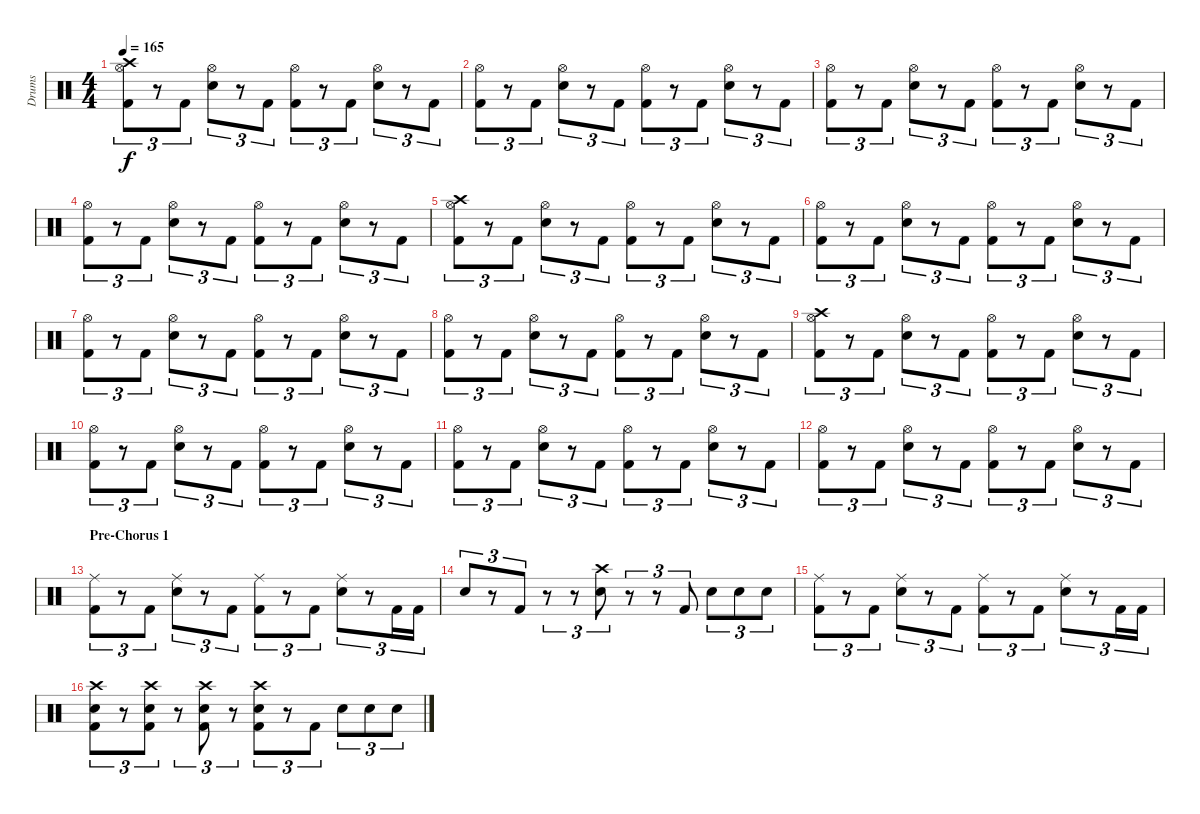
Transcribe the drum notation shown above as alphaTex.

\track ("Drums" "Drums") {instrument percussion}
\staff {score}
\articulation defaults
\ts (4 4)
\tempo 165
\clef neutral
\ks c
("Hi-Hat (open)" "Crash high (hit)" "Kick (hit) 2").8{tu (3 2) dy f} r.8{tu (3 2)} "Kick (hit) 2".8{tu (3 2)} ("Hi-Hat (open)" "Snare (hit) 2").8{tu (3 2)} r.8{tu (3 2)} "Kick (hit) 2".8{tu (3 2)} ("Hi-Hat (open)" "Kick (hit) 2").8{tu (3 2)} r.8{tu (3 2)} "Kick (hit) 2".8{tu (3 2)} ("Hi-Hat (open)" "Snare (hit) 2").8{tu (3 2)} r.8{tu (3 2)} "Kick (hit) 2".8{tu (3 2)} |
("Hi-Hat (open)" "Kick (hit) 2").8{tu (3 2)} r.8{tu (3 2)} "Kick (hit) 2".8{tu (3 2)} ("Hi-Hat (open)" "Snare (hit) 2").8{tu (3 2)} r.8{tu (3 2)} "Kick (hit) 2".8{tu (3 2)} ("Hi-Hat (open)" "Kick (hit) 2").8{tu (3 2)} r.8{tu (3 2)} "Kick (hit) 2".8{tu (3 2)} ("Hi-Hat (open)" "Snare (hit) 2").8{tu (3 2)} r.8{tu (3 2)} "Kick (hit) 2".8{tu (3 2)} |
("Hi-Hat (open)" "Kick (hit) 2").8{tu (3 2)} r.8{tu (3 2)} "Kick (hit) 2".8{tu (3 2)} ("Hi-Hat (open)" "Snare (hit) 2").8{tu (3 2)} r.8{tu (3 2)} "Kick (hit) 2".8{tu (3 2)} ("Hi-Hat (open)" "Kick (hit) 2").8{tu (3 2)} r.8{tu (3 2)} "Kick (hit) 2".8{tu (3 2)} ("Hi-Hat (open)" "Snare (hit) 2").8{tu (3 2)} r.8{tu (3 2)} "Kick (hit) 2".8{tu (3 2)} |
("Hi-Hat (open)" "Kick (hit) 2").8{tu (3 2)} r.8{tu (3 2)} "Kick (hit) 2".8{tu (3 2)} ("Hi-Hat (open)" "Snare (hit) 2").8{tu (3 2)} r.8{tu (3 2)} "Kick (hit) 2".8{tu (3 2)} ("Hi-Hat (open)" "Kick (hit) 2").8{tu (3 2)} r.8{tu (3 2)} "Kick (hit) 2".8{tu (3 2)} ("Hi-Hat (open)" "Snare (hit) 2").8{tu (3 2)} r.8{tu (3 2)} "Kick (hit) 2".8{tu (3 2)} |
("Hi-Hat (open)" "Crash high (hit)" "Kick (hit) 2").8{tu (3 2)} r.8{tu (3 2)} "Kick (hit) 2".8{tu (3 2)} ("Hi-Hat (open)" "Snare (hit) 2").8{tu (3 2)} r.8{tu (3 2)} "Kick (hit) 2".8{tu (3 2)} ("Hi-Hat (open)" "Kick (hit) 2").8{tu (3 2)} r.8{tu (3 2)} "Kick (hit) 2".8{tu (3 2)} ("Hi-Hat (open)" "Snare (hit) 2").8{tu (3 2)} r.8{tu (3 2)} "Kick (hit) 2".8{tu (3 2)} |
("Hi-Hat (open)" "Kick (hit) 2").8{tu (3 2)} r.8{tu (3 2)} "Kick (hit) 2".8{tu (3 2)} ("Hi-Hat (open)" "Snare (hit) 2").8{tu (3 2)} r.8{tu (3 2)} "Kick (hit) 2".8{tu (3 2)} ("Hi-Hat (open)" "Kick (hit) 2").8{tu (3 2)} r.8{tu (3 2)} "Kick (hit) 2".8{tu (3 2)} ("Hi-Hat (open)" "Snare (hit) 2").8{tu (3 2)} r.8{tu (3 2)} "Kick (hit) 2".8{tu (3 2)} |
("Hi-Hat (open)" "Kick (hit) 2").8{tu (3 2)} r.8{tu (3 2)} "Kick (hit) 2".8{tu (3 2)} ("Hi-Hat (open)" "Snare (hit) 2").8{tu (3 2)} r.8{tu (3 2)} "Kick (hit) 2".8{tu (3 2)} ("Hi-Hat (open)" "Kick (hit) 2").8{tu (3 2)} r.8{tu (3 2)} "Kick (hit) 2".8{tu (3 2)} ("Hi-Hat (open)" "Snare (hit) 2").8{tu (3 2)} r.8{tu (3 2)} "Kick (hit) 2".8{tu (3 2)} |
("Hi-Hat (open)" "Kick (hit) 2").8{tu (3 2)} r.8{tu (3 2)} "Kick (hit) 2".8{tu (3 2)} ("Hi-Hat (open)" "Snare (hit) 2").8{tu (3 2)} r.8{tu (3 2)} "Kick (hit) 2".8{tu (3 2)} ("Hi-Hat (open)" "Kick (hit) 2").8{tu (3 2)} r.8{tu (3 2)} "Kick (hit) 2".8{tu (3 2)} ("Hi-Hat (open)" "Snare (hit) 2").8{tu (3 2)} r.8{tu (3 2)} "Kick (hit) 2".8{tu (3 2)} |
("Hi-Hat (open)" "Crash high (hit)" "Kick (hit) 2").8{tu (3 2)} r.8{tu (3 2)} "Kick (hit) 2".8{tu (3 2)} ("Hi-Hat (open)" "Snare (hit) 2").8{tu (3 2)} r.8{tu (3 2)} "Kick (hit) 2".8{tu (3 2)} ("Hi-Hat (open)" "Kick (hit) 2").8{tu (3 2)} r.8{tu (3 2)} "Kick (hit) 2".8{tu (3 2)} ("Hi-Hat (open)" "Snare (hit) 2").8{tu (3 2)} r.8{tu (3 2)} "Kick (hit) 2".8{tu (3 2)} |
("Hi-Hat (open)" "Kick (hit) 2").8{tu (3 2)} r.8{tu (3 2)} "Kick (hit) 2".8{tu (3 2)} ("Hi-Hat (open)" "Snare (hit) 2").8{tu (3 2)} r.8{tu (3 2)} "Kick (hit) 2".8{tu (3 2)} ("Hi-Hat (open)" "Kick (hit) 2").8{tu (3 2)} r.8{tu (3 2)} "Kick (hit) 2".8{tu (3 2)} ("Hi-Hat (open)" "Snare (hit) 2").8{tu (3 2)} r.8{tu (3 2)} "Kick (hit) 2".8{tu (3 2)} |
("Hi-Hat (open)" "Kick (hit) 2").8{tu (3 2)} r.8{tu (3 2)} "Kick (hit) 2".8{tu (3 2)} ("Hi-Hat (open)" "Snare (hit) 2").8{tu (3 2)} r.8{tu (3 2)} "Kick (hit) 2".8{tu (3 2)} ("Hi-Hat (open)" "Kick (hit) 2").8{tu (3 2)} r.8{tu (3 2)} "Kick (hit) 2".8{tu (3 2)} ("Hi-Hat (open)" "Snare (hit) 2").8{tu (3 2)} r.8{tu (3 2)} "Kick (hit) 2".8{tu (3 2)} |
("Hi-Hat (open)" "Kick (hit) 2").8{tu (3 2)} r.8{tu (3 2)} "Kick (hit) 2".8{tu (3 2)} ("Hi-Hat (open)" "Snare (hit) 2").8{tu (3 2)} r.8{tu (3 2)} "Kick (hit) 2".8{tu (3 2)} ("Hi-Hat (open)" "Kick (hit) 2").8{tu (3 2)} r.8{tu (3 2)} "Kick (hit) 2".8{tu (3 2)} ("Hi-Hat (open)" "Snare (hit) 2").8{tu (3 2)} r.8{tu (3 2)} "Kick (hit) 2".8{tu (3 2)} |
\section ("" "Pre-Chorus 1")
("Ride (middle)" "Kick (hit) 2").8{tu (3 2)} r.8{tu (3 2)} "Kick (hit) 2".8{tu (3 2)} ("Ride (middle)" "Snare (hit) 2").8{tu (3 2)} r.8{tu (3 2)} "Kick (hit) 2".8{tu (3 2)} ("Ride (middle)" "Kick (hit) 2").8{tu (3 2)} r.8{tu (3 2)} "Kick (hit) 2".8{tu (3 2)} ("Ride (middle)" "Snare (hit) 2").8{tu (3 2)} r.8{tu (3 2)} "Kick (hit) 2".16{tu (3 2)} "Kick (hit) 2".16{tu (3 2)} |
"Snare (hit) 2".8{tu (3 2)} r.8{tu (3 2)} "Kick (hit) 2".8{tu (3 2)} r.8{tu (3 2)} r.8{tu (3 2)} ("Crash high (hit)" "Snare (hit) 2").8{tu (3 2)} r.8{tu (3 2)} r.8{tu (3 2)} "Kick (hit) 2".8{tu (3 2)} "Snare (hit) 2".8{tu (3 2)} "Snare (hit) 2".8{tu (3 2)} "Snare (hit) 2".8{tu (3 2)} |
("Ride (middle)" "Kick (hit) 2").8{tu (3 2)} r.8{tu (3 2)} "Kick (hit) 2".8{tu (3 2)} ("Ride (middle)" "Snare (hit) 2").8{tu (3 2)} r.8{tu (3 2)} "Kick (hit) 2".8{tu (3 2)} ("Ride (middle)" "Kick (hit) 2").8{tu (3 2)} r.8{tu (3 2)} "Kick (hit) 2".8{tu (3 2)} ("Ride (middle)" "Snare (hit) 2").8{tu (3 2)} r.8{tu (3 2)} "Kick (hit) 2".16{tu (3 2)} "Kick (hit) 2".16{tu (3 2)} |
("Crash high (hit)" "Snare (hit) 2" "Kick (hit) 2").8{tu (3 2)} r.8{tu (3 2)} ("Crash high (hit)" "Snare (hit) 2" "Kick (hit) 2").8{tu (3 2)} r.8{tu (3 2)} ("Crash high (hit)" "Snare (hit) 2" "Kick (hit) 2").8{tu (3 2)} r.8{tu (3 2)} ("Crash high (hit)" "Snare (hit) 2" "Kick (hit) 2").8{tu (3 2)} r.8{tu (3 2)} "Kick (hit) 2".8{tu (3 2)} "Snare (hit) 2".8{tu (3 2)} "Snare (hit) 2".8{tu (3 2)} "Snare (hit) 2".8{tu (3 2)}
